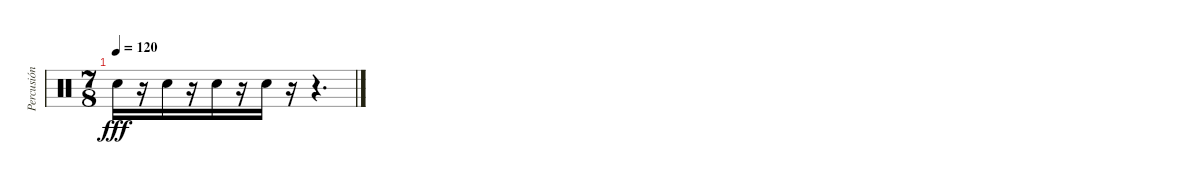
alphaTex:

\track ("Percusión" "Percusión") {instrument percussion}
\staff {score}
\articulation defaults
\ts (7 8)
\tempo 120
\clef neutral
\ks c "Electric Snare (hit)".16{dy fff}
r.16 "Electric Snare (hit)".16 r.16 "Electric Snare (hit)".16 r.16 "Electric Snare (hit)".16 r.16 r.4{d}
